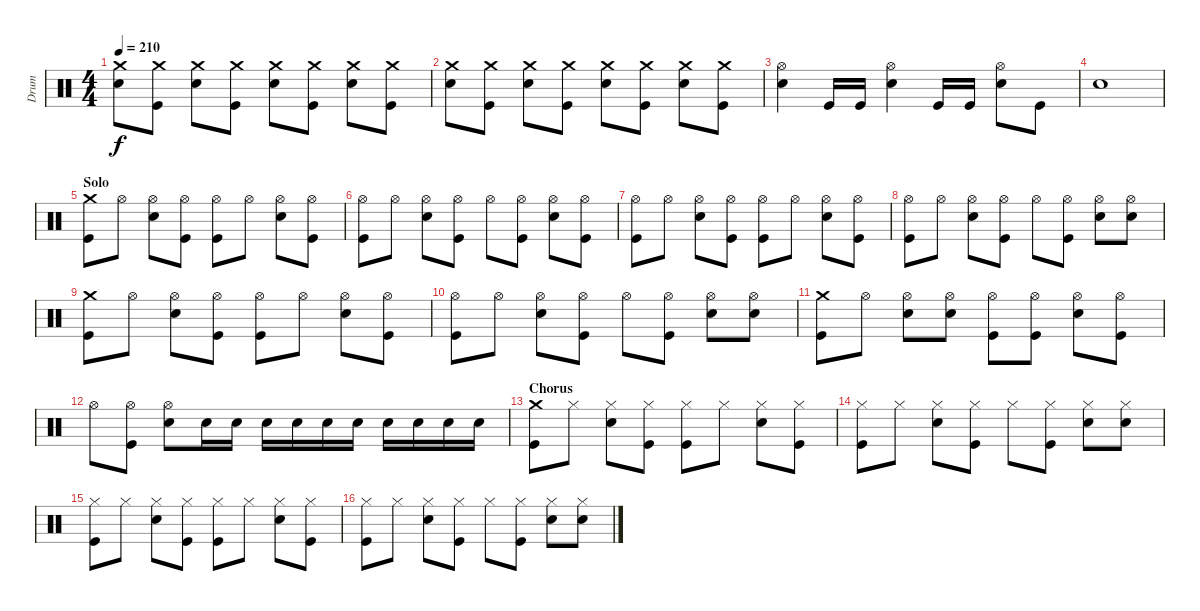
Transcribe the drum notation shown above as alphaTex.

\track ("Drum" "Drum") {instrument percussion}
\staff {score}
\articulation defaults
\ts (4 4)
\tempo 210
\clef neutral
\ks c
("Crash medium (hit)" "Snare (hit) 2").8{dy f} ("Crash medium (hit)" "Kick (hit)").8 ("Crash medium (hit)" "Snare (hit) 2").8 ("Crash medium (hit)" "Kick (hit)").8 ("Crash medium (hit)" "Snare (hit) 2").8 ("Crash medium (hit)" "Kick (hit)").8 ("Crash medium (hit)" "Snare (hit) 2").8 ("Crash medium (hit)" "Kick (hit)").8 |
("Crash medium (hit)" "Snare (hit) 2").8 ("Crash medium (hit)" "Kick (hit)").8 ("Crash medium (hit)" "Snare (hit) 2").8 ("Crash medium (hit)" "Kick (hit)").8 ("Crash medium (hit)" "Snare (hit) 2").8 ("Crash medium (hit)" "Kick (hit)").8 ("Crash medium (hit)" "Snare (hit) 2").8 ("Crash medium (hit)" "Kick (hit)").8 |
("Hi-Hat (open)" "Snare (hit) 2").4 "Kick (hit)".16 "Kick (hit)".16 ("Hi-Hat (open)" "Snare (hit) 2").4 "Kick (hit)".16 "Kick (hit)".16 ("Hi-Hat (open)" "Snare (hit) 2").8 "Kick (hit)".8 |
"Snare (hit) 2".1 |
\section ("" "Solo")
("Crash medium (hit)" "Kick (hit)").8 "Hi-Hat (open)".8 ("Hi-Hat (open)" "Snare (hit) 2").8 ("Hi-Hat (open)" "Kick (hit)").8 ("Hi-Hat (open)" "Kick (hit)").8 "Hi-Hat (open)".8 ("Hi-Hat (open)" "Snare (hit) 2").8 ("Hi-Hat (open)" "Kick (hit)").8 |
("Hi-Hat (open)" "Kick (hit)").8 "Hi-Hat (open)".8 ("Hi-Hat (open)" "Snare (hit) 2").8 ("Hi-Hat (open)" "Kick (hit)").8 "Hi-Hat (open)".8 ("Hi-Hat (open)" "Kick (hit)").8 ("Hi-Hat (open)" "Snare (hit) 2").8 ("Hi-Hat (open)" "Kick (hit)").8 |
("Hi-Hat (open)" "Kick (hit)").8 "Hi-Hat (open)".8 ("Hi-Hat (open)" "Snare (hit) 2").8 ("Hi-Hat (open)" "Kick (hit)").8 ("Hi-Hat (open)" "Kick (hit)").8 "Hi-Hat (open)".8 ("Hi-Hat (open)" "Snare (hit) 2").8 ("Hi-Hat (open)" "Kick (hit)").8 |
("Hi-Hat (open)" "Kick (hit)").8 "Hi-Hat (open)".8 ("Hi-Hat (open)" "Snare (hit) 2").8 ("Hi-Hat (open)" "Kick (hit)").8 "Hi-Hat (open)".8 ("Hi-Hat (open)" "Kick (hit)").8 ("Hi-Hat (open)" "Snare (hit) 2").8 ("Hi-Hat (open)" "Snare (hit) 2").8 |
("Crash medium (hit)" "Kick (hit)").8 "Hi-Hat (open)".8 ("Hi-Hat (open)" "Snare (hit) 2").8 ("Hi-Hat (open)" "Kick (hit)").8 ("Hi-Hat (open)" "Kick (hit)").8 "Hi-Hat (open)".8 ("Hi-Hat (open)" "Snare (hit) 2").8 ("Hi-Hat (open)" "Kick (hit)").8 |
("Hi-Hat (open)" "Kick (hit)").8 "Hi-Hat (open)".8 ("Hi-Hat (open)" "Snare (hit) 2").8 ("Hi-Hat (open)" "Kick (hit)").8 "Hi-Hat (open)".8 ("Hi-Hat (open)" "Kick (hit)").8 ("Hi-Hat (open)" "Snare (hit) 2").8 ("Hi-Hat (open)" "Snare (hit) 2").8 |
("Crash medium (hit)" "Kick (hit)").8 "Hi-Hat (open)".8 ("Hi-Hat (open)" "Snare (hit) 2").8 ("Hi-Hat (open)" "Snare (hit) 2").8 ("Hi-Hat (open)" "Kick (hit)").8 ("Hi-Hat (open)" "Kick (hit)").8 ("Hi-Hat (open)" "Snare (hit) 2").8 ("Hi-Hat (open)" "Kick (hit)").8 |
"Hi-Hat (open)".8 ("Hi-Hat (open)" "Kick (hit)").8 ("Hi-Hat (open)" "Snare (hit) 2").8 "Snare (hit) 2".16 "Snare (hit) 2".16 "Snare (hit) 2".16 "Snare (hit) 2".16 "Snare (hit) 2".16 "Snare (hit) 2".16 "Snare (hit) 2".16 "Snare (hit) 2".16 "Snare (hit) 2".16 "Snare (hit) 2".16 |
\section ("" "Chorus")
("Crash medium (hit)" "Kick (hit)").8 "Hi-Hat (closed)".8 ("Hi-Hat (closed)" "Snare (hit) 2").8 ("Hi-Hat (closed)" "Kick (hit)").8 ("Hi-Hat (closed)" "Kick (hit)").8 "Hi-Hat (closed)".8 ("Hi-Hat (closed)" "Snare (hit) 2").8 ("Hi-Hat (closed)" "Kick (hit)").8 |
("Hi-Hat (closed)" "Kick (hit)").8 "Hi-Hat (closed)".8 ("Hi-Hat (closed)" "Snare (hit) 2").8 ("Hi-Hat (closed)" "Kick (hit)").8 "Hi-Hat (closed)".8 ("Hi-Hat (closed)" "Kick (hit)").8 ("Hi-Hat (closed)" "Snare (hit) 2").8 ("Hi-Hat (closed)" "Snare (hit) 2").8 |
("Hi-Hat (closed)" "Kick (hit)").8 "Hi-Hat (closed)".8 ("Hi-Hat (closed)" "Snare (hit) 2").8 ("Hi-Hat (closed)" "Kick (hit)").8 ("Hi-Hat (closed)" "Kick (hit)").8 "Hi-Hat (closed)".8 ("Hi-Hat (closed)" "Snare (hit) 2").8 ("Hi-Hat (closed)" "Kick (hit)").8 |
("Hi-Hat (closed)" "Kick (hit)").8 "Hi-Hat (closed)".8 ("Hi-Hat (closed)" "Snare (hit) 2").8 ("Hi-Hat (closed)" "Kick (hit)").8 "Hi-Hat (closed)".8 ("Hi-Hat (closed)" "Kick (hit)").8 ("Hi-Hat (closed)" "Snare (hit) 2").8 ("Hi-Hat (closed)" "Snare (hit) 2").8
